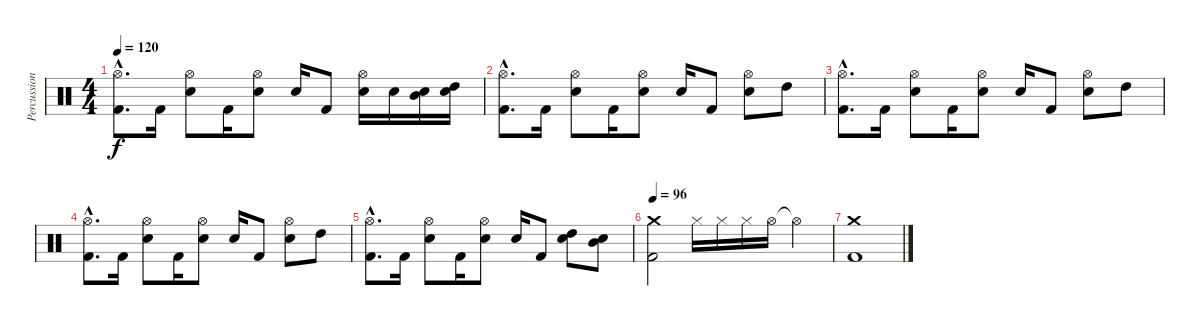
\track ("Percussion" "Percussion") {instrument percussion}
\staff {score}
\articulation defaults
\ts (4 4)
\tempo 120
\clef neutral
\ks c
("Hi-Hat (open)"{hac} "Kick (hit) 2"{hac}).8{d dy f} "Kick (hit) 2".16 ("Hi-Hat (open)" "Electric Snare (hit)").8 "Kick (hit) 2".16 ("Hi-Hat (open)" "Electric Snare (hit)").8 "Electric Snare (hit)".16 "Kick (hit) 2".8 ("Hi-Hat (open)" "Electric Snare (hit)").16 "Electric Snare (hit)".16 ("Electric Snare (hit)" "Mid Tom (hit)").16 ("Electric Snare (hit)" "High Tom (hit)").16 |
("Hi-Hat (open)"{hac} "Kick (hit) 2"{hac}).8{d} "Kick (hit) 2".16 ("Hi-Hat (open)" "Electric Snare (hit)").8 "Kick (hit) 2".16 ("Hi-Hat (open)" "Electric Snare (hit)").8 "Electric Snare (hit)".16 "Kick (hit) 2".8 ("Hi-Hat (open)" "Electric Snare (hit)").8 "High Tom (hit)".8 |
("Hi-Hat (open)"{hac} "Kick (hit) 2"{hac}).8{d} "Kick (hit) 2".16 ("Hi-Hat (open)" "Electric Snare (hit)").8 "Kick (hit) 2".16 ("Hi-Hat (open)" "Electric Snare (hit)").8 "Electric Snare (hit)".16 "Kick (hit) 2".8 ("Hi-Hat (open)" "Electric Snare (hit)").8 "High Tom (hit)".8 |
("Hi-Hat (open)"{hac} "Kick (hit) 2"{hac}).8{d} "Kick (hit) 2".16 ("Hi-Hat (open)" "Electric Snare (hit)").8 "Kick (hit) 2".16 ("Hi-Hat (open)" "Electric Snare (hit)").8 "Electric Snare (hit)".16 "Kick (hit) 2".8 ("Hi-Hat (open)" "Electric Snare (hit)").8 "High Tom (hit)".8 |
("Hi-Hat (open)"{hac} "Kick (hit) 2"{hac}).8{d} "Kick (hit) 2".16 ("Hi-Hat (open)" "Electric Snare (hit)").8 "Kick (hit) 2".16 ("Hi-Hat (open)" "Electric Snare (hit)").8 "Electric Snare (hit)".16 "Kick (hit) 2".8 ("Electric Snare (hit)" "High Tom (hit)").8 ("Electric Snare (hit)" "Mid Tom (hit)").8 |
\tempo 96
("Crash medium (hit)" "Kick (hit) 2").2 "Hi-Hat (closed)".16 "Hi-Hat (closed)".16 "Hi-Hat (closed)".16 "Hi-Hat (open)".16 "Hi-Hat (open)"{t}.4 |
("Crash medium (hit)" "Kick (hit) 2").1
